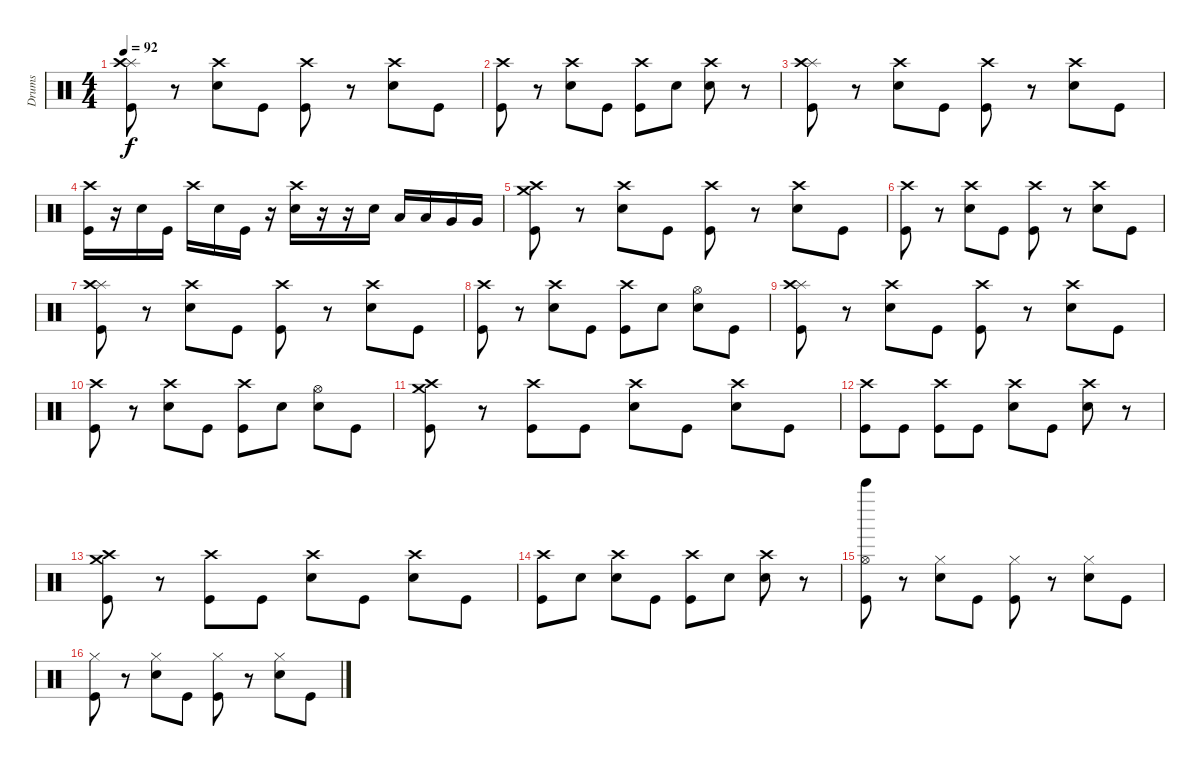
\track ("Drums" "Drums") {instrument percussion}
\staff {score}
\articulation defaults
\ts (4 4)
\tempo 92
\clef neutral
\ks c
("Splash (hit)" "Crash high (hit)" "Kick (hit)").8{dy f} r.8 ("Crash high (hit)" "Snare (hit) 2").8 "Kick (hit)".8 ("Crash high (hit)" "Kick (hit)").8 r.8 ("Crash high (hit)" "Snare (hit) 2").8 "Kick (hit)".8 |
("Crash high (hit)" "Kick (hit)").8 r.8 ("Crash high (hit)" "Snare (hit) 2").8 "Kick (hit)".8 ("Crash high (hit)" "Kick (hit)").8 "Snare (hit) 2".8 ("Crash high (hit)" "Snare (hit) 2").8 r.8 |
("Splash (hit)" "Crash high (hit)" "Kick (hit)").8 r.8 ("Crash high (hit)" "Snare (hit) 2").8 "Kick (hit)".8 ("Crash high (hit)" "Kick (hit)").8 r.8 ("Crash high (hit)" "Snare (hit) 2").8 "Kick (hit)".8 |
("Crash high (hit)" "Kick (hit)").16 r.16 "Snare (hit) 2".16 "Kick (hit)".16 "Crash high (hit)".16 "Snare (hit) 2".16 "Kick (hit)".16 r.16 ("Crash high (hit)" "Snare (hit) 2").16 r.16 r.16 "Snare (hit) 2".16 "Low Tom (hit)".16 "Low Tom (hit)".16 "Very Low Tom (hit)".16 "Very Low Tom (hit)".16 |
("Crash medium (hit)" "Crash high (hit)" "Kick (hit)").8 r.8 ("Crash high (hit)" "Snare (hit) 2").8 "Kick (hit)".8 ("Crash high (hit)" "Kick (hit)").8 r.8 ("Crash high (hit)" "Snare (hit) 2").8 "Kick (hit)".8 |
("Crash high (hit)" "Kick (hit)").8 r.8 ("Crash high (hit)" "Snare (hit) 2").8 "Kick (hit)".8 ("Crash high (hit)" "Kick (hit)").8 r.8 ("Crash high (hit)" "Snare (hit) 2").8 "Kick (hit)".8 |
("Splash (hit)" "Crash high (hit)" "Kick (hit)").8 r.8 ("Crash high (hit)" "Snare (hit) 2").8 "Kick (hit)".8 ("Crash high (hit)" "Kick (hit)").8 r.8 ("Crash high (hit)" "Snare (hit) 2").8 "Kick (hit)".8 |
("Crash high (hit)" "Kick (hit)").8 r.8 ("Crash high (hit)" "Snare (hit) 2").8 "Kick (hit)".8 ("Crash high (hit)" "Kick (hit)").8 "Snare (hit) 2".8 ("Hi-Hat (open)" "Snare (hit) 2").8 "Kick (hit)".8 |
("Splash (hit)" "Crash high (hit)" "Kick (hit)").8 r.8 ("Crash high (hit)" "Snare (hit) 2").8 "Kick (hit)".8 ("Crash high (hit)" "Kick (hit)").8 r.8 ("Crash high (hit)" "Snare (hit) 2").8 "Kick (hit)".8 |
("Crash high (hit)" "Kick (hit)").8 r.8 ("Crash high (hit)" "Snare (hit) 2").8 "Kick (hit)".8 ("Crash high (hit)" "Kick (hit)").8 "Snare (hit) 2".8 ("Hi-Hat (open)" "Snare (hit) 2").8 "Kick (hit)".8 |
("Crash medium (hit)" "Crash high (hit)" "Kick (hit)").8 r.8 ("Crash high (hit)" "Kick (hit)").8 "Kick (hit)".8 ("Crash high (hit)" "Snare (hit) 2").8 "Kick (hit)".8 ("Crash high (hit)" "Snare (hit) 2").8 "Kick (hit)".8 |
("Crash high (hit)" "Kick (hit)").8 "Kick (hit)".8 ("Crash high (hit)" "Kick (hit)").8 "Kick (hit)".8 ("Crash high (hit)" "Snare (hit) 2").8 "Kick (hit)".8 ("Crash high (hit)" "Snare (hit) 2").8 r.8 |
("Crash medium (hit)" "Crash high (hit)" "Kick (hit)").8 r.8 ("Crash high (hit)" "Kick (hit)").8 "Kick (hit)".8 ("Crash high (hit)" "Snare (hit) 2").8 "Kick (hit)".8 ("Crash high (hit)" "Snare (hit) 2").8 "Kick (hit)".8 |
("Crash high (hit)" "Kick (hit)").8 "Snare (hit) 2".8 ("Crash high (hit)" "Snare (hit) 2").8 "Kick (hit)".8 ("Crash high (hit)" "Kick (hit)").8 "Snare (hit) 2".8 ("Crash high (hit)" "Snare (hit) 2").8 r.8 |
("Bell Tree (hit)" "Hi-Hat (open)" "Kick (hit)").8 r.8 ("Hi-Hat (closed)" "Snare (hit) 2").8 "Kick (hit)".8 ("Hi-Hat (closed)" "Kick (hit)").8 r.8 ("Hi-Hat (closed)" "Snare (hit) 2").8 "Kick (hit)".8 |
("Hi-Hat (closed)" "Kick (hit)").8 r.8 ("Hi-Hat (closed)" "Snare (hit) 2").8 "Kick (hit)".8 ("Hi-Hat (closed)" "Kick (hit)").8 r.8 ("Hi-Hat (closed)" "Snare (hit) 2").8 "Kick (hit)".8
